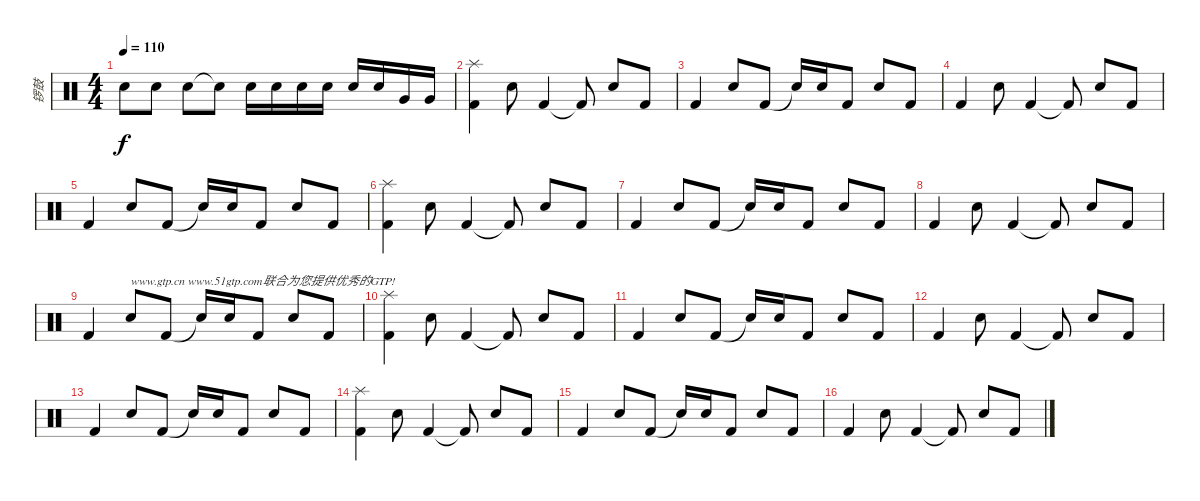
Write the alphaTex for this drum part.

\track ("锣鼓" "锣鼓") {instrument percussion}
\staff {score}
\articulation defaults
\ts (4 4)
\tempo 110
\clef neutral
\ks c "Snare (hit) 2".8{dy f} "Snare (hit) 2".8 "Snare (hit) 2".8 "Snare (hit)"{t}.8 "Snare (hit) 2".16 "Snare (hit) 2".16 "Snare (hit) 2".16 "Snare (hit) 2".16 "Snare (hit) 2".16 "Snare (hit) 2".16 "Very Low Tom (hit)".16 "Very Low Tom (hit)".16
|
("Kick (hit) 2" "Splash (hit)").4 "Snare (hit) 2".8 "Kick (hit) 2".4 "Kick (hit) 2"{t}.8 "Snare (hit) 2".8 "Kick (hit) 2".8 |
"Kick (hit) 2".4 "Snare (hit) 2".8 "Kick (hit) 2".8 "Snare (hit)"{t}.16 "Snare (hit) 2".16 "Kick (hit) 2".8 "Snare (hit) 2".8 "Kick (hit) 2".8 |
"Kick (hit) 2".4 "Snare (hit) 2".8 "Kick (hit) 2".4 "Kick (hit) 2"{t}.8 "Snare (hit) 2".8 "Kick (hit) 2".8 |
"Kick (hit) 2".4 "Snare (hit) 2".8 "Kick (hit) 2".8 "Snare (hit)"{t}.16 "Snare (hit) 2".16 "Kick (hit) 2".8 "Snare (hit) 2".8 "Kick (hit) 2".8 |
("Kick (hit) 2" "Splash (hit)").4 "Snare (hit) 2".8 "Kick (hit) 2".4 "Kick (hit) 2"{t}.8 "Snare (hit) 2".8 "Kick (hit) 2".8 |
"Kick (hit) 2".4 "Snare (hit) 2".8 "Kick (hit) 2".8 "Snare (hit)"{t}.16 "Snare (hit) 2".16 "Kick (hit) 2".8 "Snare (hit) 2".8 "Kick (hit) 2".8 |
"Kick (hit) 2".4 "Snare (hit) 2".8 "Kick (hit) 2".4 "Kick (hit) 2"{t}.8 "Snare (hit) 2".8 "Kick (hit) 2".8 |
"Kick (hit) 2".4 "Snare (hit) 2".8{txt "www.gtp.cn www.51gtp.com联合为您提供优秀的GTP!"} "Kick (hit) 2".8 "Snare (hit)"{t}.16 "Snare (hit) 2".16 "Kick (hit) 2".8 "Snare (hit) 2".8 "Kick (hit) 2".8 |
("Kick (hit) 2" "Splash (hit)").4 "Snare (hit) 2".8 "Kick (hit) 2".4 "Kick (hit) 2"{t}.8 "Snare (hit) 2".8 "Kick (hit) 2".8 |
"Kick (hit) 2".4 "Snare (hit) 2".8 "Kick (hit) 2".8 "Snare (hit)"{t}.16 "Snare (hit) 2".16 "Kick (hit) 2".8 "Snare (hit) 2".8 "Kick (hit) 2".8 |
"Kick (hit) 2".4 "Snare (hit) 2".8 "Kick (hit) 2".4 "Kick (hit) 2"{t}.8 "Snare (hit) 2".8 "Kick (hit) 2".8 |
"Kick (hit) 2".4 "Snare (hit) 2".8 "Kick (hit) 2".8 "Snare (hit)"{t}.16 "Snare (hit) 2".16 "Kick (hit) 2".8 "Snare (hit) 2".8 "Kick (hit) 2".8 |
("Kick (hit) 2" "Splash (hit)").4 "Snare (hit) 2".8 "Kick (hit) 2".4 "Kick (hit) 2"{t}.8 "Snare (hit) 2".8 "Kick (hit) 2".8 |
"Kick (hit) 2".4 "Snare (hit) 2".8 "Kick (hit) 2".8 "Snare (hit)"{t}.16 "Snare (hit) 2".16 "Kick (hit) 2".8 "Snare (hit) 2".8 "Kick (hit) 2".8 |
"Kick (hit) 2".4 "Snare (hit) 2".8 "Kick (hit) 2".4 "Kick (hit) 2"{t}.8 "Snare (hit) 2".8 "Kick (hit) 2".8
